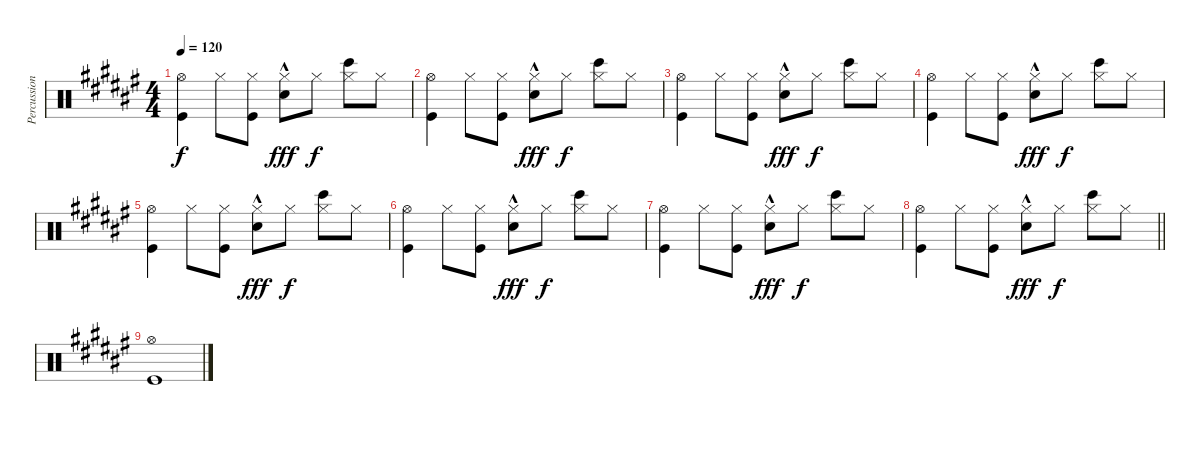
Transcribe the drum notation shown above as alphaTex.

\track ("Percussion" "Percussion") {instrument percussion}
\staff {score}
\articulation defaults
\ts (4 4)
\tempo 120
\clef neutral
\ks f#
("Kick (hit)" "Hi-Hat (open)").4{dy f} "Hi-Hat (closed)".8 ("Kick (hit)" "Hi-Hat (closed)").8 ("Electric Snare (hit)"{hac} "Hi-Hat (closed)").8{dy fff} "Hi-Hat (closed)".8{dy f} ("Bongo High (hit)" "Hi-Hat (closed)").8 "Hi-Hat (closed)".8 |
("Kick (hit)" "Hi-Hat (open)").4 "Hi-Hat (closed)".8 ("Kick (hit)" "Hi-Hat (closed)").8 ("Electric Snare (hit)"{hac} "Hi-Hat (closed)").8{dy fff} "Hi-Hat (closed)".8{dy f} ("Bongo High (hit)" "Hi-Hat (closed)").8 "Hi-Hat (closed)".8 |
("Kick (hit)" "Hi-Hat (open)").4 "Hi-Hat (closed)".8 ("Kick (hit)" "Hi-Hat (closed)").8 ("Electric Snare (hit)"{hac} "Hi-Hat (closed)").8{dy fff} "Hi-Hat (closed)".8{dy f} ("Bongo High (hit)" "Hi-Hat (closed)").8 "Hi-Hat (closed)".8 |
("Kick (hit)" "Hi-Hat (open)").4 "Hi-Hat (closed)".8 ("Kick (hit)" "Hi-Hat (closed)").8 ("Electric Snare (hit)"{hac} "Hi-Hat (closed)").8{dy fff} "Hi-Hat (closed)".8{dy f} ("Bongo High (hit)" "Hi-Hat (closed)").8 "Hi-Hat (closed)".8 |
("Kick (hit)" "Hi-Hat (open)").4 "Hi-Hat (closed)".8 ("Kick (hit)" "Hi-Hat (closed)").8 ("Electric Snare (hit)"{hac} "Hi-Hat (closed)").8{dy fff} "Hi-Hat (closed)".8{dy f} ("Bongo High (hit)" "Hi-Hat (closed)").8 "Hi-Hat (closed)".8 |
("Kick (hit)" "Hi-Hat (open)").4 "Hi-Hat (closed)".8 ("Kick (hit)" "Hi-Hat (closed)").8 ("Electric Snare (hit)"{hac} "Hi-Hat (closed)").8{dy fff} "Hi-Hat (closed)".8{dy f} ("Bongo High (hit)" "Hi-Hat (closed)").8 "Hi-Hat (closed)".8 |
("Kick (hit)" "Hi-Hat (open)").4 "Hi-Hat (closed)".8 ("Kick (hit)" "Hi-Hat (closed)").8 ("Electric Snare (hit)"{hac} "Hi-Hat (closed)").8{dy fff} "Hi-Hat (closed)".8{dy f} ("Bongo High (hit)" "Hi-Hat (closed)").8 "Hi-Hat (closed)".8 |
\barLineRight lightlight
("Kick (hit)" "Hi-Hat (open)").4 "Hi-Hat (closed)".8 ("Kick (hit)" "Hi-Hat (closed)").8 ("Electric Snare (hit)"{hac} "Hi-Hat (closed)").8{dy fff} "Hi-Hat (closed)".8{dy f} ("Bongo High (hit)" "Hi-Hat (closed)").8 "Hi-Hat (closed)".8 |
("Kick (hit)" "Hi-Hat (open)").1
